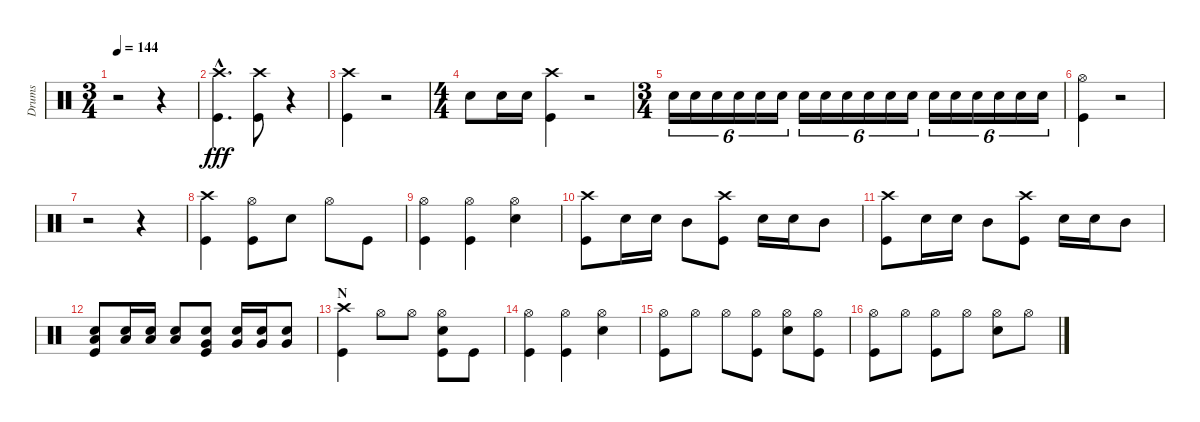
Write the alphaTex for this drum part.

\track ("Drums" "Drums") {instrument percussion}
\staff {score}
\articulation defaults
\ts (3 4)
\tempo 144
\clef neutral
\ks c
r.2{dy fff} r.4 |
("Crash high (hit)"{hac} "Kick (hit)"{hac}).4{d} ("Crash high (hit)" "Kick (hit)").8 r.4 |
("Crash high (hit)" "Kick (hit)").4 r.2 |
\ts (4 4)
"Snare (hit) 2".8 "Snare (hit) 2".16 "Snare (hit) 2".16 ("Crash high (hit)" "Kick (hit)").4 r.2 |
\ts (3 4)
"Snare (hit) 2".16{tu (6 4)} "Snare (hit) 2".16{tu (6 4)} "Snare (hit) 2".16{tu (6 4)} "Snare (hit) 2".16{tu (6 4)} "Snare (hit) 2".16{tu (6 4)} "Snare (hit) 2".16{tu (6 4)} "Snare (hit) 2".16{tu (6 4)} "Snare (hit) 2".16{tu (6 4)} "Snare (hit) 2".16{tu (6 4)} "Snare (hit) 2".16{tu (6 4)} "Snare (hit) 2".16{tu (6 4)} "Snare (hit) 2".16{tu (6 4)} "Snare (hit) 2".16{tu (6 4)} "Snare (hit) 2".16{tu (6 4)} "Snare (hit) 2".16{tu (6 4)} "Snare (hit) 2".16{tu (6 4)} "Snare (hit) 2".16{tu (6 4)} "Snare (hit) 2".16{tu (6 4)} |
("Hi-Hat (open)" "Kick (hit)").4 r.2 |
r.2 r.4 |
("Crash high (hit)" "Kick (hit)").4 ("Hi-Hat (open)" "Kick (hit)").8 "Snare (hit) 2".8 "Hi-Hat (open)".8 "Kick (hit)".8 |
("Hi-Hat (open)" "Kick (hit)").4 ("Hi-Hat (open)" "Kick (hit)").4 ("Hi-Hat (open)" "Snare (hit) 2").4 |
("Crash high (hit)" "Kick (hit)").8 "Snare (hit) 2".16 "Snare (hit) 2".16 "Mid Tom (hit)".8 ("Crash high (hit)" "Kick (hit)").8 "Snare (hit) 2".16 "Snare (hit) 2".16 "Mid Tom (hit)".8 |
("Crash high (hit)" "Kick (hit)").8 "Snare (hit) 2".16 "Snare (hit) 2".16 "Mid Tom (hit)".8 ("Crash high (hit)" "Kick (hit)").8 "Snare (hit) 2".16 "Snare (hit) 2".16 "Mid Tom (hit)".8 |
("Low Tom (hit)" "Snare (hit) 2" "Kick (hit)").8 ("Low Tom (hit)" "Snare (hit) 2").16 ("Low Tom (hit)" "Snare (hit) 2").16 ("Low Tom (hit)" "Snare (hit) 2").8 ("Very Low Tom (hit)" "Snare (hit) 2" "Kick (hit)").8 ("Very Low Tom (hit)" "Snare (hit) 2").16 ("Very Low Tom (hit)" "Snare (hit) 2").16 ("Very Low Tom (hit)" "Snare (hit) 2").8 |
\section ("" "N")
("Crash high (hit)" "Kick (hit)").4 "Hi-Hat (open)".8 "Hi-Hat (open)".8 ("Hi-Hat (open)" "Snare (hit) 2" "Kick (hit)").8 "Kick (hit)".8 |
("Hi-Hat (open)" "Kick (hit)").4 ("Hi-Hat (open)" "Kick (hit)").4 ("Hi-Hat (open)" "Snare (hit) 2").4 |
("Hi-Hat (open)" "Kick (hit)").8 "Hi-Hat (open)".8 "Hi-Hat (open)".8 ("Hi-Hat (open)" "Kick (hit)").8 ("Hi-Hat (open)" "Snare (hit) 2").8 ("Hi-Hat (open)" "Kick (hit)").8 |
("Hi-Hat (open)" "Kick (hit)").8 "Hi-Hat (open)".8 ("Hi-Hat (open)" "Kick (hit)").8 "Hi-Hat (open)".8 ("Hi-Hat (open)" "Snare (hit) 2").8 "Hi-Hat (open)".8
